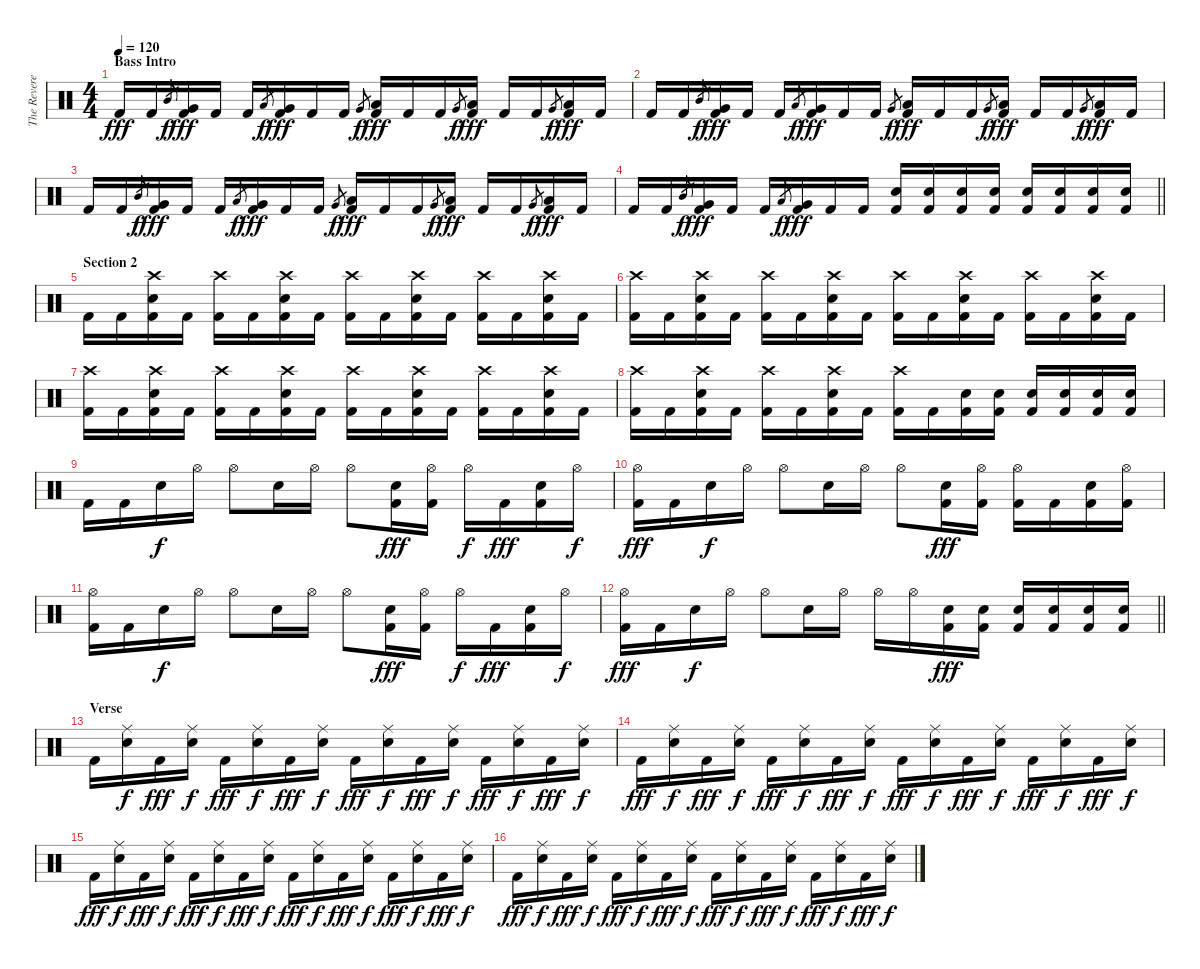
\track ("The Reverend" "The Revere") {instrument percussion}
\staff {score}
\articulation defaults
\ts (4 4)
\section ("" "Bass Intro")
\tempo 120
\clef neutral
\ks c "Kick (hit) 2".16{dy fff volume 13} "Kick (hit) 2".16 "Mid Tom (hit)".8{gr dy f}
("Very Low Tom (hit)" "Kick (hit) 2").16{dy fff} "Kick (hit) 2".16 "Kick (hit) 2".16 "Low Tom (hit)".8{gr dy f} ("Very Low Tom (hit)" "Kick (hit) 2").16{dy fff} "Kick (hit) 2".16 "Kick (hit) 2".16 "Very Low Tom (hit)".8{gr dy f} ("Low Floor Tom (hit)" "Kick (hit) 2").16{dy fff} "Kick (hit) 2".16 "Kick (hit) 2".16 "Very Low Tom (hit)".8{gr dy f} ("Low Floor Tom (hit)" "Kick (hit) 2").16{dy fff} "Kick (hit) 2".16 "Kick (hit) 2".16 "Very Low Tom (hit)".8{gr dy f} ("Low Floor Tom (hit)" "Kick (hit) 2").16{dy fff} "Kick (hit) 2".16 |
"Kick (hit) 2".16 "Kick (hit) 2".16 "Mid Tom (hit)".8{gr dy f} ("Very Low Tom (hit)" "Kick (hit) 2").16{dy fff} "Kick (hit) 2".16 "Kick (hit) 2".16 "Low Tom (hit)".8{gr dy f} ("Very Low Tom (hit)" "Kick (hit) 2").16{dy fff} "Kick (hit) 2".16 "Kick (hit) 2".16 "Very Low Tom (hit)".8{gr dy f} ("Low Floor Tom (hit)" "Kick (hit) 2").16{dy fff} "Kick (hit) 2".16 "Kick (hit) 2".16 "Very Low Tom (hit)".8{gr dy f} ("Low Floor Tom (hit)" "Kick (hit) 2").16{dy fff} "Kick (hit) 2".16 "Kick (hit) 2".16 "Very Low Tom (hit)".8{gr dy f} ("Low Floor Tom (hit)" "Kick (hit) 2").16{dy fff} "Kick (hit) 2".16 |
"Kick (hit) 2".16 "Kick (hit) 2".16 "Mid Tom (hit)".8{gr dy f} ("Very Low Tom (hit)" "Kick (hit) 2").16{dy fff} "Kick (hit) 2".16 "Kick (hit) 2".16 "Low Tom (hit)".8{gr dy f} ("Very Low Tom (hit)" "Kick (hit) 2").16{dy fff} "Kick (hit) 2".16 "Kick (hit) 2".16 "Very Low Tom (hit)".8{gr dy f} ("Low Floor Tom (hit)" "Kick (hit) 2").16{dy fff} "Kick (hit) 2".16 "Kick (hit) 2".16 "Very Low Tom (hit)".8{gr dy f} ("Low Floor Tom (hit)" "Kick (hit) 2").16{dy fff} "Kick (hit) 2".16 "Kick (hit) 2".16 "Very Low Tom (hit)".8{gr dy f} ("Low Floor Tom (hit)" "Kick (hit) 2").16{dy fff} "Kick (hit) 2".16 |
\barLineRight lightlight "Kick (hit) 2".16 "Kick (hit) 2".16 "Mid Tom (hit)".8{gr dy f}
("Very Low Tom (hit)" "Kick (hit) 2").16{dy fff} "Kick (hit) 2".16 "Kick (hit) 2".16 "Low Tom (hit)".8{gr dy f} ("Very Low Tom (hit)" "Kick (hit) 2").16{dy fff} "Kick (hit) 2".16 "Kick (hit) 2".16 ("Electric Snare (hit)" "Kick (hit) 2").16 ("Electric Snare (hit)" "Kick (hit) 2").16 ("Electric Snare (hit)" "Kick (hit) 2").16 ("Electric Snare (hit)" "Kick (hit) 2").16 ("Electric Snare (hit)" "Kick (hit) 2").16 ("Electric Snare (hit)" "Kick (hit) 2").16 ("Electric Snare (hit)" "Kick (hit) 2").16 ("Electric Snare (hit)" "Kick (hit) 2").16 |
\section ("" "Section 2")
"Kick (hit) 2".16 "Kick (hit) 2".16 ("Crash high (hit)" "Electric Snare (hit)" "Kick (hit) 2").16 "Kick (hit) 2".16 ("Crash high (hit)" "Kick (hit) 2").16 "Kick (hit) 2".16 ("Crash high (hit)" "Electric Snare (hit)" "Kick (hit) 2").16 "Kick (hit) 2".16 ("Crash high (hit)" "Kick (hit) 2").16 "Kick (hit) 2".16 ("Crash high (hit)" "Electric Snare (hit)" "Kick (hit) 2").16 "Kick (hit) 2".16 ("Crash high (hit)" "Kick (hit) 2").16 "Kick (hit) 2".16 ("Crash high (hit)" "Electric Snare (hit)" "Kick (hit) 2").16 "Kick (hit) 2".16 |
("Crash high (hit)" "Kick (hit) 2").16 "Kick (hit) 2".16 ("Crash high (hit)" "Electric Snare (hit)" "Kick (hit) 2").16 "Kick (hit) 2".16 ("Crash high (hit)" "Kick (hit) 2").16 "Kick (hit) 2".16 ("Crash high (hit)" "Electric Snare (hit)" "Kick (hit) 2").16 "Kick (hit) 2".16 ("Crash high (hit)" "Kick (hit) 2").16 "Kick (hit) 2".16 ("Crash high (hit)" "Electric Snare (hit)" "Kick (hit) 2").16 "Kick (hit) 2".16 ("Crash high (hit)" "Kick (hit) 2").16 "Kick (hit) 2".16 ("Crash high (hit)" "Electric Snare (hit)" "Kick (hit) 2").16 "Kick (hit) 2".16 |
("Crash high (hit)" "Kick (hit) 2").16 "Kick (hit) 2".16 ("Crash high (hit)" "Electric Snare (hit)" "Kick (hit) 2").16 "Kick (hit) 2".16 ("Crash high (hit)" "Kick (hit) 2").16 "Kick (hit) 2".16 ("Crash high (hit)" "Electric Snare (hit)" "Kick (hit) 2").16 "Kick (hit) 2".16 ("Crash high (hit)" "Kick (hit) 2").16 "Kick (hit) 2".16 ("Crash high (hit)" "Electric Snare (hit)" "Kick (hit) 2").16 "Kick (hit) 2".16 ("Crash high (hit)" "Kick (hit) 2").16 "Kick (hit) 2".16 ("Crash high (hit)" "Electric Snare (hit)" "Kick (hit) 2").16 "Kick (hit) 2".16 |
("Crash high (hit)" "Kick (hit) 2").16 "Kick (hit) 2".16 ("Crash high (hit)" "Electric Snare (hit)" "Kick (hit) 2").16 "Kick (hit) 2".16 ("Crash high (hit)" "Kick (hit) 2").16 "Kick (hit) 2".16 ("Crash high (hit)" "Electric Snare (hit)" "Kick (hit) 2").16 "Kick (hit) 2".16 ("Crash high (hit)" "Kick (hit) 2").16 "Kick (hit) 2".16 ("Electric Snare (hit)" "Kick (hit) 2").16 ("Electric Snare (hit)" "Kick (hit) 2").16 ("Electric Snare (hit)" "Kick (hit) 2").16 ("Electric Snare (hit)" "Kick (hit) 2").16 ("Electric Snare (hit)" "Kick (hit) 2").16 ("Electric Snare (hit)" "Kick (hit) 2").16 |
"Kick (hit) 2".16 "Kick (hit) 2".16 "Electric Snare (hit)".16{dy f} "Hi-Hat (open)".16 "Hi-Hat (open)".8 "Electric Snare (hit)".16 "Hi-Hat (open)".16 "Hi-Hat (open)".8 ("Electric Snare (hit)" "Kick (hit) 2").16{dy fff} ("Hi-Hat (open)" "Kick (hit) 2").16 "Hi-Hat (open)".16{dy f} "Kick (hit) 2".16{dy fff} ("Electric Snare (hit)" "Kick (hit) 2").16 "Hi-Hat (open)".16{dy f} |
("Hi-Hat (open)" "Kick (hit) 2").16{dy fff} "Kick (hit) 2".16 "Electric Snare (hit)".16{dy f} "Hi-Hat (open)".16 "Hi-Hat (open)".8 "Electric Snare (hit)".16 "Hi-Hat (open)".16 "Hi-Hat (open)".8 ("Electric Snare (hit)" "Kick (hit) 2").16{dy fff} ("Hi-Hat (open)" "Kick (hit) 2").16 ("Hi-Hat (open)" "Kick (hit) 2").16 "Kick (hit) 2".16 ("Electric Snare (hit)" "Kick (hit) 2").16 ("Hi-Hat (open)" "Kick (hit) 2").16 |
("Hi-Hat (open)" "Kick (hit) 2").16 "Kick (hit) 2".16 "Electric Snare (hit)".16{dy f} "Hi-Hat (open)".16 "Hi-Hat (open)".8 "Electric Snare (hit)".16 "Hi-Hat (open)".16 "Hi-Hat (open)".8 ("Electric Snare (hit)" "Kick (hit) 2").16{dy fff} ("Hi-Hat (open)" "Kick (hit) 2").16 "Hi-Hat (open)".16{dy f} "Kick (hit) 2".16{dy fff} ("Electric Snare (hit)" "Kick (hit) 2").16 "Hi-Hat (open)".16{dy f} |
\barLineRight lightlight
("Hi-Hat (open)" "Kick (hit) 2").16{dy fff} "Kick (hit) 2".16 "Electric Snare (hit)".16{dy f} "Hi-Hat (open)".16 "Hi-Hat (open)".8 "Electric Snare (hit)".16 "Hi-Hat (open)".16 "Hi-Hat (open)".16 "Hi-Hat (open)".16 ("Electric Snare (hit)" "Kick (hit) 2").16{dy fff} ("Electric Snare (hit)" "Kick (hit) 2").16 ("Electric Snare (hit)" "Kick (hit) 2").16 ("Electric Snare (hit)" "Kick (hit) 2").16 ("Electric Snare (hit)" "Kick (hit) 2").16 ("Electric Snare (hit)" "Kick (hit) 2").16 |
\section ("" "Verse")
"Kick (hit) 2".16 ("Ride (middle)" "Electric Snare (hit)").16{dy f} "Kick (hit) 2".16{dy fff} ("Ride (middle)" "Electric Snare (hit)").16{dy f} "Kick (hit) 2".16{dy fff} ("Ride (middle)" "Electric Snare (hit)").16{dy f} "Kick (hit) 2".16{dy fff} ("Ride (middle)" "Electric Snare (hit)").16{dy f} "Kick (hit) 2".16{dy fff} ("Ride (middle)" "Electric Snare (hit)").16{dy f} "Kick (hit) 2".16{dy fff} ("Ride (middle)" "Electric Snare (hit)").16{dy f} "Kick (hit) 2".16{dy fff} ("Ride (middle)" "Electric Snare (hit)").16{dy f} "Kick (hit) 2".16{dy fff} ("Ride (middle)" "Electric Snare (hit)").16{dy f} |
"Kick (hit) 2".16{dy fff} ("Ride (middle)" "Electric Snare (hit)").16{dy f} "Kick (hit) 2".16{dy fff} ("Ride (middle)" "Electric Snare (hit)").16{dy f} "Kick (hit) 2".16{dy fff} ("Ride (middle)" "Electric Snare (hit)").16{dy f} "Kick (hit) 2".16{dy fff} ("Ride (middle)" "Electric Snare (hit)").16{dy f} "Kick (hit) 2".16{dy fff} ("Ride (middle)" "Electric Snare (hit)").16{dy f} "Kick (hit) 2".16{dy fff} ("Ride (middle)" "Electric Snare (hit)").16{dy f} "Kick (hit) 2".16{dy fff} ("Ride (middle)" "Electric Snare (hit)").16{dy f} "Kick (hit) 2".16{dy fff} ("Ride (middle)" "Electric Snare (hit)").16{dy f} |
"Kick (hit) 2".16{dy fff} ("Ride (middle)" "Electric Snare (hit)").16{dy f} "Kick (hit) 2".16{dy fff} ("Ride (middle)" "Electric Snare (hit)").16{dy f} "Kick (hit) 2".16{dy fff} ("Ride (middle)" "Electric Snare (hit)").16{dy f} "Kick (hit) 2".16{dy fff} ("Ride (middle)" "Electric Snare (hit)").16{dy f} "Kick (hit) 2".16{dy fff} ("Ride (middle)" "Electric Snare (hit)").16{dy f} "Kick (hit) 2".16{dy fff} ("Ride (middle)" "Electric Snare (hit)").16{dy f} "Kick (hit) 2".16{dy fff} ("Ride (middle)" "Electric Snare (hit)").16{dy f} "Kick (hit) 2".16{dy fff} ("Ride (middle)" "Electric Snare (hit)").16{dy f} |
"Kick (hit) 2".16{dy fff} ("Ride (middle)" "Electric Snare (hit)").16{dy f} "Kick (hit) 2".16{dy fff} ("Ride (middle)" "Electric Snare (hit)").16{dy f} "Kick (hit) 2".16{dy fff} ("Ride (middle)" "Electric Snare (hit)").16{dy f} "Kick (hit) 2".16{dy fff} ("Ride (middle)" "Electric Snare (hit)").16{dy f} "Kick (hit) 2".16{dy fff} ("Ride (middle)" "Electric Snare (hit)").16{dy f} "Kick (hit) 2".16{dy fff} ("Ride (middle)" "Electric Snare (hit)").16{dy f} "Kick (hit) 2".16{dy fff} ("Ride (middle)" "Electric Snare (hit)").16{dy f} "Kick (hit) 2".16{dy fff} ("Ride (middle)" "Electric Snare (hit)").16{dy f}
